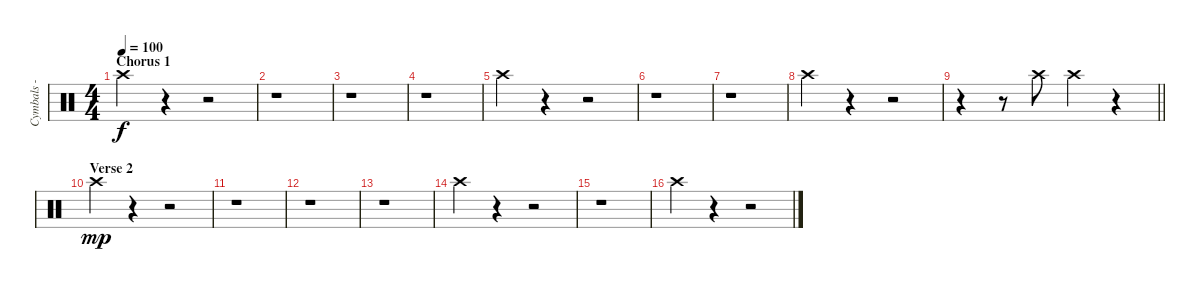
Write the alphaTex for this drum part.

\track ("Cymbals - crash" "Cymbals - ") {instrument percussion}
\staff {score}
\articulation defaults
\ts (4 4)
\section ("" "Chorus 1")
\tempo 100
\clef neutral
\ks c "Crash high (hit)".4{dy f}
r.4 r.2 |
r.1 |
r.1 |
r.1 |
"Crash high (hit)".4 r.4 r.2 |
r.1 |
r.1 |
"Crash high (hit)".4 r.4 r.2 |
\barLineRight lightlight
r.4 r.8 "Crash high (hit)".8 "Crash high (hit)".4 r.4 |
\section ("" "Verse 2")
"Crash high (hit)".4{dy mp} r.4 r.2 |
r.1 |
r.1 |
r.1 |
"Crash high (hit)".4 r.4 r.2 |
r.1 |
"Crash high (hit)".4 r.4 r.2
